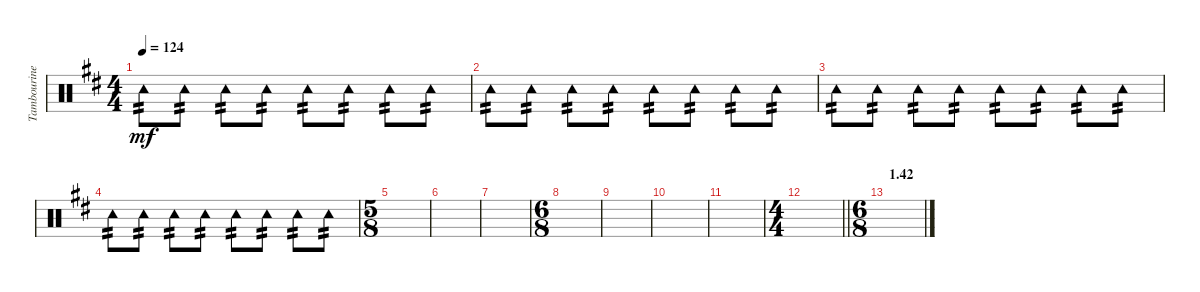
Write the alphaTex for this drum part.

\track ("Tambourine" "Tambourine") {instrument percussion}
\staff {score}
\articulation defaults
\ts (4 4)
\tempo 124
\clef neutral
\ks d "Tambourine (hit)".8{tp 2 dy mf} "Tambourine (hit)".8{tp 2} "Tambourine (hit)".8{tp 2} "Tambourine (hit)".8{tp 2} "Tambourine (hit)".8{tp 2} "Tambourine (hit)".8{tp 2} "Tambourine (hit)".8{tp 2} "Tambourine (hit)".8{tp 2}
|
"Tambourine (hit)".8{tp 2} "Tambourine (hit)".8{tp 2} "Tambourine (hit)".8{tp 2} "Tambourine (hit)".8{tp 2} "Tambourine (hit)".8{tp 2} "Tambourine (hit)".8{tp 2} "Tambourine (hit)".8{tp 2} "Tambourine (hit)".8{tp 2} |
"Tambourine (hit)".8{tp 2} "Tambourine (hit)".8{tp 2} "Tambourine (hit)".8{tp 2} "Tambourine (hit)".8{tp 2} "Tambourine (hit)".8{tp 2} "Tambourine (hit)".8{tp 2} "Tambourine (hit)".8{tp 2} "Tambourine (hit)".8{tp 2} |
"Tambourine (hit)".8{tp 2} "Tambourine (hit)".8{tp 2} "Tambourine (hit)".8{tp 2} "Tambourine (hit)".8{tp 2} "Tambourine (hit)".8{tp 2} "Tambourine (hit)".8{tp 2} "Tambourine (hit)".8{tp 2} "Tambourine (hit)".8{tp 2} |
\ts (5 8)
|
|
|
\ts (6 8)
|
|
|
|
\ts (4 4)
\barLineRight lightlight
|
\ts (6 8)
\section ("" "1.42")
